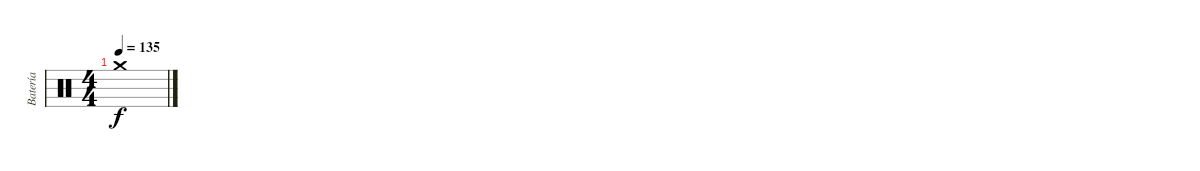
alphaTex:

\track ("Batería" "Batería") {instrument percussion}
\staff {score}
\articulation defaults
\ts (4 4)
\tempo 135
\clef neutral
\ks c "Crash medium (hit)".1{dy f}
